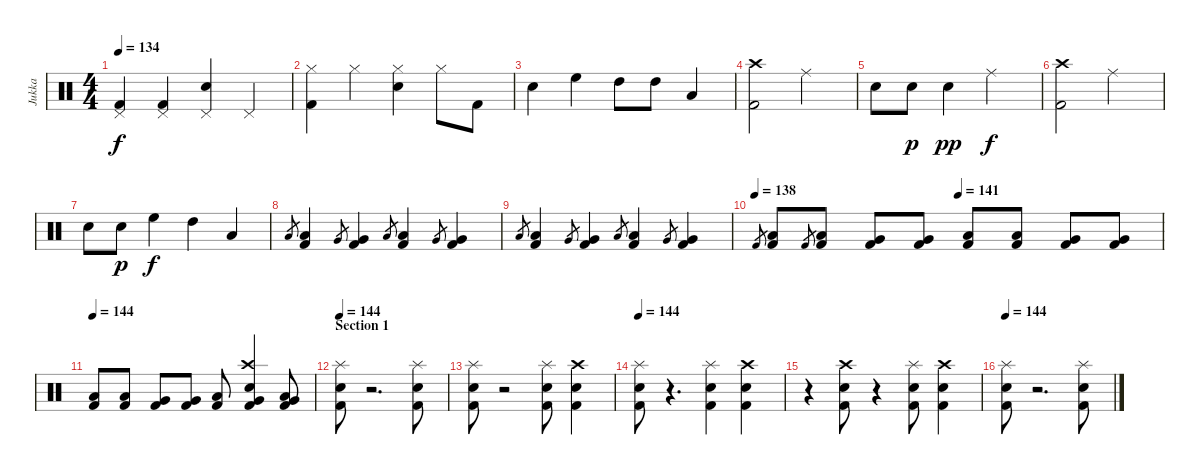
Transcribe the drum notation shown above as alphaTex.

\track ("Jukka" "Jukka") {instrument percussion}
\staff {score}
\articulation defaults
\ts (4 4)
\tempo 134
\clef neutral
\ks c
("Pedal Hi-Hat (hit)" "Kick (hit) 2").4{dy f} ("Pedal Hi-Hat (hit)" "Kick (hit) 2").4 ("Pedal Hi-Hat (hit)" "Electric Snare (hit)").4 "Pedal Hi-Hat (hit)".4 |
("Hi-Hat (closed)" "Kick (hit) 2").4 "Hi-Hat (closed)".4 ("Hi-Hat (closed)" "Electric Snare (hit)").4 "Hi-Hat (closed)".8 "Kick (hit) 2".8 |
"Electric Snare (hit)".4 "High Floor Tom (hit)".4 "High Tom (hit)".8 "High Tom (hit)".8 "Low Tom (hit)".4 |
("Crash high (hit)" "Kick (hit) 2").2 "Ride (middle)".2 |
"Electric Snare (hit)".8 "Electric Snare (hit)".8{dy p} "Electric Snare (hit)".4{dy pp} "Ride (middle)".2{dy f} |
("Crash high (hit)" "Kick (hit) 2").2 "Ride (middle)".2 |
"Electric Snare (hit)".8 "Electric Snare (hit)".8{dy p} "High Floor Tom (hit)".4{dy f} "High Tom (hit)".4 "Low Tom (hit)".4 |
"Low Tom (hit)".8{gr} ("Low Tom (hit)" "Kick (hit) 2").4 "Very Low Tom (hit)".8{gr} ("Very Low Tom (hit)" "Kick (hit) 2").4 "Low Tom (hit)".8{gr} ("Low Tom (hit)" "Kick (hit) 2").4 "Very Low Tom (hit)".8{gr} ("Very Low Tom (hit)" "Kick (hit) 2").4 |
"Low Tom (hit)".8{gr} ("Low Tom (hit)" "Kick (hit) 2").4 "Very Low Tom (hit)".8{gr} ("Very Low Tom (hit)" "Kick (hit) 2").4 "Low Tom (hit)".8{gr} ("Low Tom (hit)" "Kick (hit) 2").4 "Very Low Tom (hit)".8{gr} ("Very Low Tom (hit)" "Kick (hit) 2").4 |
\tempo 138
\tempo (141 0.5)
"Kick (hit) 2".8{gr} ("Low Tom (hit)" "Kick (hit) 2").8 "Kick (hit) 2".8{gr} ("Low Tom (hit)" "Kick (hit) 2").8 ("Very Low Tom (hit)" "Kick (hit) 2").8 ("Very Low Tom (hit)" "Kick (hit) 2").8 ("Low Tom (hit)" "Kick (hit) 2").8 ("Low Tom (hit)" "Kick (hit) 2").8 ("Very Low Tom (hit)" "Kick (hit) 2").8 ("Very Low Tom (hit)" "Kick (hit) 2").8 |
\tempo 144
("Low Tom (hit)" "Kick (hit) 2").8 ("Low Tom (hit)" "Kick (hit) 2").8 ("Very Low Tom (hit)" "Kick (hit) 2").8 ("Very Low Tom (hit)" "Kick (hit) 2").8 ("Low Tom (hit)" "Kick (hit) 2").8 ("Crash high (hit)" "Electric Snare (hit)" "Very Low Tom (hit)" "Kick (hit) 2").4 ("Low Tom (hit)" "Very Low Tom (hit)" "Kick (hit) 2").8 |
\section ("" "Section 1")
\tempo 144
("Splash (hit)" "Electric Snare (hit)" "Kick (hit) 2").8 r.2{d} ("Splash (hit)" "Electric Snare (hit)" "Kick (hit) 2").8 |
("Splash (hit)" "Electric Snare (hit)" "Kick (hit) 2").8 r.2 ("Splash (hit)" "Electric Snare (hit)" "Kick (hit) 2").8 ("Crash high (hit)" "Electric Snare (hit)" "Kick (hit) 2").4 |
\tempo 144
("Splash (hit)" "Electric Snare (hit)" "Kick (hit) 2").8 r.4{d} ("Splash (hit)" "Electric Snare (hit)" "Kick (hit) 2").4 ("Crash high (hit)" "Electric Snare (hit)" "Kick (hit) 2").4 |
r.4 ("Crash high (hit)" "Electric Snare (hit)" "Kick (hit) 2").8 r.4 ("Splash (hit)" "Electric Snare (hit)" "Kick (hit) 2").8 ("Crash high (hit)" "Electric Snare (hit)" "Kick (hit) 2").4 |
\tempo 144
("Splash (hit)" "Electric Snare (hit)" "Kick (hit) 2").8 r.2{d} ("Splash (hit)" "Electric Snare (hit)" "Kick (hit) 2").8
